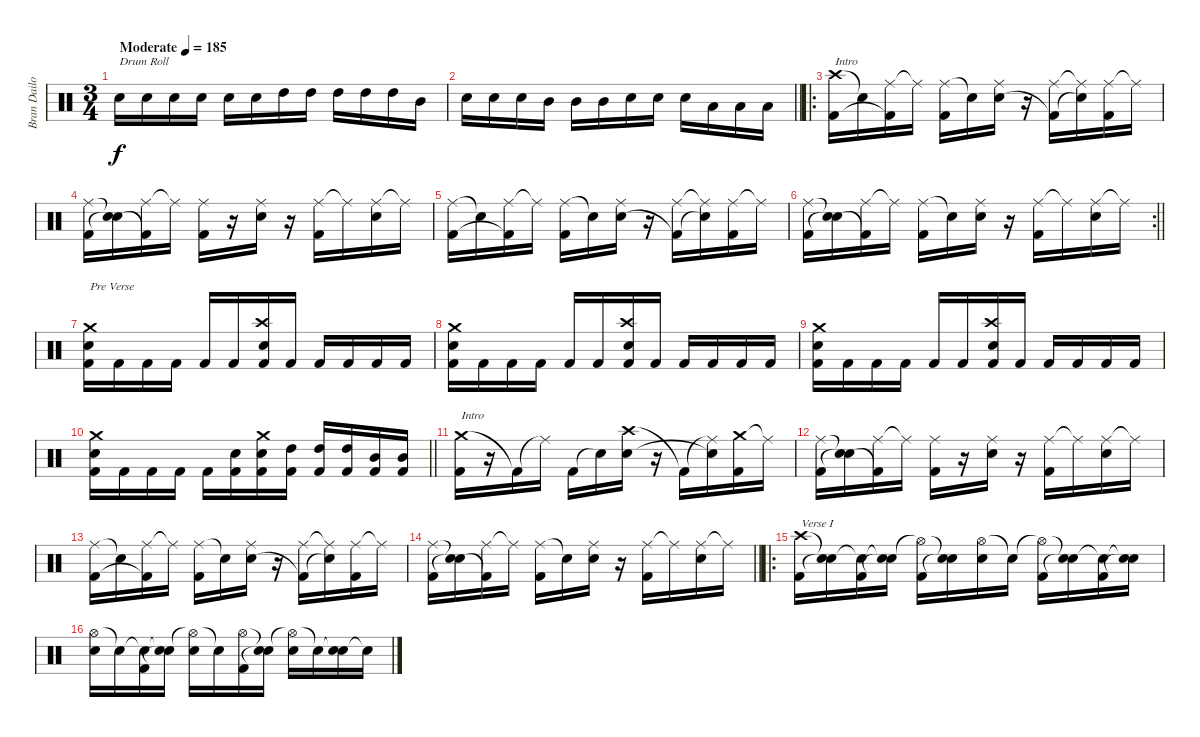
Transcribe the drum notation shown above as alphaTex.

\track ("Bran Dailor" "Bran Dailo") {instrument percussion}
\staff {score}
\articulation defaults
\ts (3 4)
\tempo (185 "Moderate")
\clef neutral
\ks c "Electric Snare (hit)".16{txt "Drum Roll" dy f} "Electric Snare (hit)".16 "Electric Snare (hit)".16 "Electric Snare (hit)".16 "Electric Snare (hit)".16 "Electric Snare (hit)".16 "High Tom (hit)".16 "High Tom (hit)".16 "High Tom (hit)".16 "High Tom (hit)".16 "High Tom (hit)".16 "Mid Tom (hit)".16
|
\barLineRight lightlight "Electric Snare (hit)".16 "Electric Snare (hit)".16 "Electric Snare (hit)".16 "Mid Tom (hit)".16 "Mid Tom (hit)".16 "Mid Tom (hit)".16 "Electric Snare (hit)".16 "Electric Snare (hit)".16 "Electric Snare (hit)".16 "Low Tom (hit)".16 "Low Tom (hit)".16 "Low Tom (hit)".16
|
\ro
("Crash high (hit)" "Kick (hit) 2").16{txt "Intro"} "Snare (hit)"{t}.16 ("Ride (middle)" "Kick (hit) 2"{t}).16 "Ride (middle)"{t}.16 ("Ride (middle)" "Kick (hit) 2").16 "Snare (hit)"{t}.16 ("Ride (middle)" "Electric Snare (hit)").16 r.16 ("Ride (middle)" "Kick (hit) 2"{t}).16 ("Ride (middle)"{t} "Snare (hit)"{t}).16 ("Ride (middle)" "Kick (hit) 2").16 "Ride (middle)"{t}.16 |
("Ride (middle)" "Kick (hit) 2").16 ("Snare (hit)"{t} "Snare (hit)"{t}).16 ("Ride (middle)" "Kick (hit) 2"{t}).16 "Ride (middle)"{t}.16 ("Ride (middle)" "Kick (hit) 2").16 r.16 ("Ride (middle)" "Electric Snare (hit)").16 r.16 ("Ride (middle)" "Kick (hit) 2").16 "Ride (middle)"{t}.16 ("Ride (middle)" "Electric Snare (hit)").16 "Ride (middle)"{t}.16 |
("Ride (middle)" "Kick (hit) 2").16 "Snare (hit)"{t}.16 ("Ride (middle)" "Kick (hit) 2"{t}).16 "Ride (middle)"{t}.16 ("Ride (middle)" "Kick (hit) 2").16 "Snare (hit)"{t}.16 ("Ride (middle)" "Electric Snare (hit)").16 r.16 ("Ride (middle)" "Kick (hit) 2"{t}).16 ("Ride (middle)"{t} "Snare (hit)"{t}).16 ("Ride (middle)" "Kick (hit) 2").16 "Ride (middle)"{t}.16 |
\rc 2
\barLineRight lightlight
("Ride (middle)" "Kick (hit) 2").16 ("Snare (hit)"{t} "Snare (hit)"{t}).16 ("Ride (middle)" "Kick (hit) 2"{t}).16 "Ride (middle)"{t}.16 ("Ride (middle)" "Kick (hit) 2").16 "Snare (hit)"{t}.16 ("Ride (middle)" "Electric Snare (hit)").16 r.16 ("Ride (middle)" "Kick (hit) 2").16 "Ride (middle)"{t}.16 ("Ride (middle)" "Electric Snare (hit)").16 "Ride (middle)"{t}.16 |
("Crash medium (hit)" "Electric Snare (hit)" "Kick (hit) 2").16{txt "Pre Verse"} "Kick (hit) 2".16 "Kick (hit) 2".16 "Kick (hit) 2".16 "Kick (hit) 2".16 "Kick (hit) 2".16 ("Crash high (hit)" "Electric Snare (hit)" "Kick (hit) 2").16 "Kick (hit) 2".16 "Kick (hit) 2".16 "Kick (hit) 2".16 "Kick (hit) 2".16 "Kick (hit) 2".16 |
("Crash medium (hit)" "Electric Snare (hit)" "Kick (hit) 2").16 "Kick (hit) 2".16 "Kick (hit) 2".16 "Kick (hit) 2".16 "Kick (hit) 2".16 "Kick (hit) 2".16 ("Crash high (hit)" "Electric Snare (hit)" "Kick (hit) 2").16 "Kick (hit) 2".16 "Kick (hit) 2".16 "Kick (hit) 2".16 "Kick (hit) 2".16 "Kick (hit) 2".16 |
("Crash medium (hit)" "Electric Snare (hit)" "Kick (hit) 2").16 "Kick (hit) 2".16 "Kick (hit) 2".16 "Kick (hit) 2".16 "Kick (hit) 2".16 "Kick (hit) 2".16 ("Crash high (hit)" "Electric Snare (hit)" "Kick (hit) 2").16 "Kick (hit) 2".16 "Kick (hit) 2".16 "Kick (hit) 2".16 "Kick (hit) 2".16 "Kick (hit) 2".16 |
\barLineRight lightlight
("Crash medium (hit)" "Electric Snare (hit)" "Kick (hit) 2").16 "Kick (hit) 2".16 "Kick (hit) 2".16 "Kick (hit) 2".16 "Kick (hit) 2".16 ("Electric Snare (hit)" "Kick (hit) 2").16 ("Crash medium (hit)" "Electric Snare (hit)" "Kick (hit) 2").16 ("High Tom (hit)" "Kick (hit) 2").16 ("High Tom (hit)" "Kick (hit) 2").16 ("High Tom (hit)" "Kick (hit) 2").16 ("Mid Tom (hit)" "Kick (hit) 2").16 ("Mid Tom (hit)" "Kick (hit) 2").16 |
("Crash medium (hit)" "Kick (hit) 2").16{txt "Intro"} r.16 "Kick (hit) 2"{t}.16 "Ride (middle)"{t}.16 "Kick (hit) 2".16 "Snare (hit)"{t}.16 ("Crash high (hit)" "Electric Snare (hit)").16 r.16 "Kick (hit) 2"{t}.16 ("Ride (middle)"{t} "Snare (hit)"{t}).16 ("Crash medium (hit)" "Kick (hit) 2").16 "Ride (middle)"{t}.16 |
("Ride (middle)" "Kick (hit) 2").16 ("Snare (hit)"{t} "Snare (hit)"{t}).16 ("Ride (middle)" "Kick (hit) 2"{t}).16 "Ride (middle)"{t}.16 ("Ride (middle)" "Kick (hit) 2").16 r.16 ("Ride (middle)" "Electric Snare (hit)").16 r.16 ("Ride (middle)" "Kick (hit) 2").16 "Ride (middle)"{t}.16 ("Ride (middle)" "Electric Snare (hit)").16 "Ride (middle)"{t}.16 |
("Ride (middle)" "Kick (hit) 2").16 "Snare (hit)"{t}.16 ("Ride (middle)" "Kick (hit) 2"{t}).16 "Ride (middle)"{t}.16 ("Ride (middle)" "Kick (hit) 2").16 "Snare (hit)"{t}.16 ("Ride (middle)" "Electric Snare (hit)").16 r.16 ("Ride (middle)" "Kick (hit) 2"{t}).16 ("Ride (middle)"{t} "Snare (hit)"{t}).16 ("Ride (middle)" "Kick (hit) 2").16 "Ride (middle)"{t}.16 |
\barLineRight lightlight
("Ride (middle)" "Kick (hit) 2").16 ("Snare (hit)"{t} "Snare (hit)"{t}).16 ("Ride (middle)" "Kick (hit) 2"{t}).16 "Ride (middle)"{t}.16 ("Ride (middle)" "Kick (hit) 2").16 "Snare (hit)"{t}.16 ("Ride (middle)" "Electric Snare (hit)").16 r.16 ("Ride (middle)" "Kick (hit) 2").16 "Ride (middle)"{t}.16 ("Ride (middle)" "Electric Snare (hit)").16 "Ride (middle)"{t}.16 |
\ro
("Crash high (hit)" "Kick (hit) 2").16{txt "Verse I"} ("Snare (hit)"{t} "Snare (hit)"{t}).16 ("Snare (hit)"{t} "Kick (hit) 2").16 ("Snare (hit)"{t} "Snare (hit)"{t}).16 ("Hi-Hat (open)"{t} "Kick (hit) 2").16 ("Snare (hit)"{t} "Snare (hit)"{t}).16 ("Hi-Hat (open)" "Electric Snare (hit)").16 "Snare (hit)"{t}.16 ("Hi-Hat (open)"{t} "Kick (hit) 2").16 ("Snare (hit)"{t} "Snare (hit)"{t}).16 ("Snare (hit)"{t} "Kick (hit) 2").16 ("Snare (hit)"{t} "Snare (hit)"{t}).16 |
("Hi-Hat (open)" "Electric Snare (hit)").16 "Snare (hit)"{t}.16 ("Snare (hit)"{t} "Kick (hit) 2").16 ("Snare (hit)"{t} "Snare (hit)"{t}).16 ("Hi-Hat (open)"{t} "Electric Snare (hit)").16 "Snare (hit)"{t}.16 ("Hi-Hat (open)" "Kick (hit) 2").16 ("Snare (hit)"{t} "Snare (hit)"{t}).16 ("Hi-Hat (open)"{t} "Electric Snare (hit)").16 "Snare (hit)"{t}.16 ("Snare (hit)"{t} "Electric Snare (hit)").16 "Snare (hit)"{t}.16
